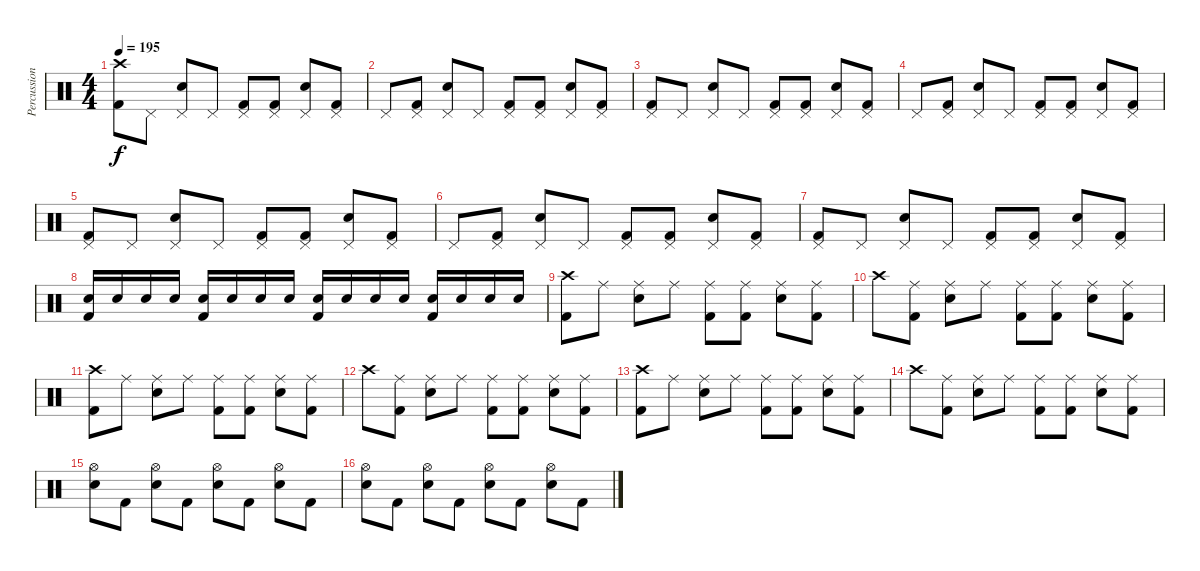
\track ("Percussion" "Percussion") {instrument percussion}
\staff {score}
\articulation defaults
\ts (4 4)
\tempo 195
\clef neutral
\ks c
("Crash high (hit)" "Kick (hit) 2").8{dy f} "Pedal Hi-Hat (hit)".8 ("Pedal Hi-Hat (hit)" "Electric Snare (hit)").8 "Pedal Hi-Hat (hit)".8 ("Pedal Hi-Hat (hit)" "Kick (hit) 2").8 ("Pedal Hi-Hat (hit)" "Kick (hit) 2").8 ("Pedal Hi-Hat (hit)" "Electric Snare (hit)").8 ("Pedal Hi-Hat (hit)" "Kick (hit) 2").8 |
"Pedal Hi-Hat (hit)".8 ("Pedal Hi-Hat (hit)" "Kick (hit) 2").8 ("Pedal Hi-Hat (hit)" "Electric Snare (hit)").8 "Pedal Hi-Hat (hit)".8 ("Pedal Hi-Hat (hit)" "Kick (hit) 2").8 ("Pedal Hi-Hat (hit)" "Kick (hit) 2").8 ("Pedal Hi-Hat (hit)" "Electric Snare (hit)").8 ("Pedal Hi-Hat (hit)" "Kick (hit) 2").8 |
("Pedal Hi-Hat (hit)" "Kick (hit) 2").8 "Pedal Hi-Hat (hit)".8 ("Pedal Hi-Hat (hit)" "Electric Snare (hit)").8 "Pedal Hi-Hat (hit)".8 ("Pedal Hi-Hat (hit)" "Kick (hit) 2").8 ("Pedal Hi-Hat (hit)" "Kick (hit) 2").8 ("Pedal Hi-Hat (hit)" "Electric Snare (hit)").8 ("Pedal Hi-Hat (hit)" "Kick (hit) 2").8 |
"Pedal Hi-Hat (hit)".8 ("Pedal Hi-Hat (hit)" "Kick (hit) 2").8 ("Pedal Hi-Hat (hit)" "Electric Snare (hit)").8 "Pedal Hi-Hat (hit)".8 ("Pedal Hi-Hat (hit)" "Kick (hit) 2").8 ("Pedal Hi-Hat (hit)" "Kick (hit) 2").8 ("Pedal Hi-Hat (hit)" "Electric Snare (hit)").8 ("Pedal Hi-Hat (hit)" "Kick (hit) 2").8 |
("Pedal Hi-Hat (hit)" "Kick (hit) 2").8 "Pedal Hi-Hat (hit)".8 ("Pedal Hi-Hat (hit)" "Electric Snare (hit)").8 "Pedal Hi-Hat (hit)".8 ("Pedal Hi-Hat (hit)" "Kick (hit) 2").8 ("Pedal Hi-Hat (hit)" "Kick (hit) 2").8 ("Pedal Hi-Hat (hit)" "Electric Snare (hit)").8 ("Pedal Hi-Hat (hit)" "Kick (hit) 2").8 |
"Pedal Hi-Hat (hit)".8 ("Pedal Hi-Hat (hit)" "Kick (hit) 2").8 ("Pedal Hi-Hat (hit)" "Electric Snare (hit)").8 "Pedal Hi-Hat (hit)".8 ("Pedal Hi-Hat (hit)" "Kick (hit) 2").8 ("Pedal Hi-Hat (hit)" "Kick (hit) 2").8 ("Pedal Hi-Hat (hit)" "Electric Snare (hit)").8 ("Pedal Hi-Hat (hit)" "Kick (hit) 2").8 |
("Pedal Hi-Hat (hit)" "Kick (hit) 2").8 "Pedal Hi-Hat (hit)".8 ("Pedal Hi-Hat (hit)" "Electric Snare (hit)").8 "Pedal Hi-Hat (hit)".8 ("Pedal Hi-Hat (hit)" "Kick (hit) 2").8 ("Pedal Hi-Hat (hit)" "Kick (hit) 2").8 ("Pedal Hi-Hat (hit)" "Electric Snare (hit)").8 ("Pedal Hi-Hat (hit)" "Kick (hit) 2").8 |
("Electric Snare (hit)" "Kick (hit) 2").16 "Electric Snare (hit)".16 "Electric Snare (hit)".16 "Electric Snare (hit)".16 ("Electric Snare (hit)" "Kick (hit) 2").16 "Electric Snare (hit)".16 "Electric Snare (hit)".16 "Electric Snare (hit)".16 ("Electric Snare (hit)" "Kick (hit) 2").16 "Electric Snare (hit)".16 "Electric Snare (hit)".16 "Electric Snare (hit)".16 ("Electric Snare (hit)" "Kick (hit) 2").16 "Electric Snare (hit)".16 "Electric Snare (hit)".16 "Electric Snare (hit)".16 |
("Crash high (hit)" "Kick (hit) 2").8 "Ride (middle)".8 ("Ride (middle)" "Electric Snare (hit)").8 "Ride (middle)".8 ("Ride (middle)" "Kick (hit) 2").8 ("Ride (middle)" "Kick (hit) 2").8 ("Ride (middle)" "Electric Snare (hit)").8 ("Ride (middle)" "Kick (hit) 2").8 |
"Crash high (hit)".8 ("Ride (middle)" "Kick (hit) 2").8 ("Ride (middle)" "Electric Snare (hit)").8 "Ride (middle)".8 ("Ride (middle)" "Kick (hit) 2").8 ("Ride (middle)" "Kick (hit) 2").8 ("Ride (middle)" "Electric Snare (hit)").8 ("Ride (middle)" "Kick (hit) 2").8 |
("Crash high (hit)" "Kick (hit) 2").8 "Ride (middle)".8 ("Ride (middle)" "Electric Snare (hit)").8 "Ride (middle)".8 ("Ride (middle)" "Kick (hit) 2").8 ("Ride (middle)" "Kick (hit) 2").8 ("Ride (middle)" "Electric Snare (hit)").8 ("Ride (middle)" "Kick (hit) 2").8 |
"Crash high (hit)".8 ("Ride (middle)" "Kick (hit) 2").8 ("Ride (middle)" "Electric Snare (hit)").8 "Ride (middle)".8 ("Ride (middle)" "Kick (hit) 2").8 ("Ride (middle)" "Kick (hit) 2").8 ("Ride (middle)" "Electric Snare (hit)").8 ("Ride (middle)" "Kick (hit) 2").8 |
("Crash high (hit)" "Kick (hit) 2").8 "Ride (middle)".8 ("Ride (middle)" "Electric Snare (hit)").8 "Ride (middle)".8 ("Ride (middle)" "Kick (hit) 2").8 ("Ride (middle)" "Kick (hit) 2").8 ("Ride (middle)" "Electric Snare (hit)").8 ("Ride (middle)" "Kick (hit) 2").8 |
"Crash high (hit)".8 ("Ride (middle)" "Kick (hit) 2").8 ("Ride (middle)" "Electric Snare (hit)").8 "Ride (middle)".8 ("Ride (middle)" "Kick (hit) 2").8 ("Ride (middle)" "Kick (hit) 2").8 ("Ride (middle)" "Electric Snare (hit)").8 ("Ride (middle)" "Kick (hit) 2").8 |
("Hi-Hat (open)" "Electric Snare (hit)").8 "Kick (hit) 2".8 ("Hi-Hat (open)" "Electric Snare (hit)").8 "Kick (hit) 2".8 ("Hi-Hat (open)" "Electric Snare (hit)").8 "Kick (hit) 2".8 ("Hi-Hat (open)" "Electric Snare (hit)").8 "Kick (hit) 2".8 |
("Hi-Hat (open)" "Electric Snare (hit)").8 "Kick (hit) 2".8 ("Hi-Hat (open)" "Electric Snare (hit)").8 "Kick (hit) 2".8 ("Hi-Hat (open)" "Electric Snare (hit)").8 "Kick (hit) 2".8 ("Hi-Hat (open)" "Electric Snare (hit)").8 "Kick (hit) 2".8
